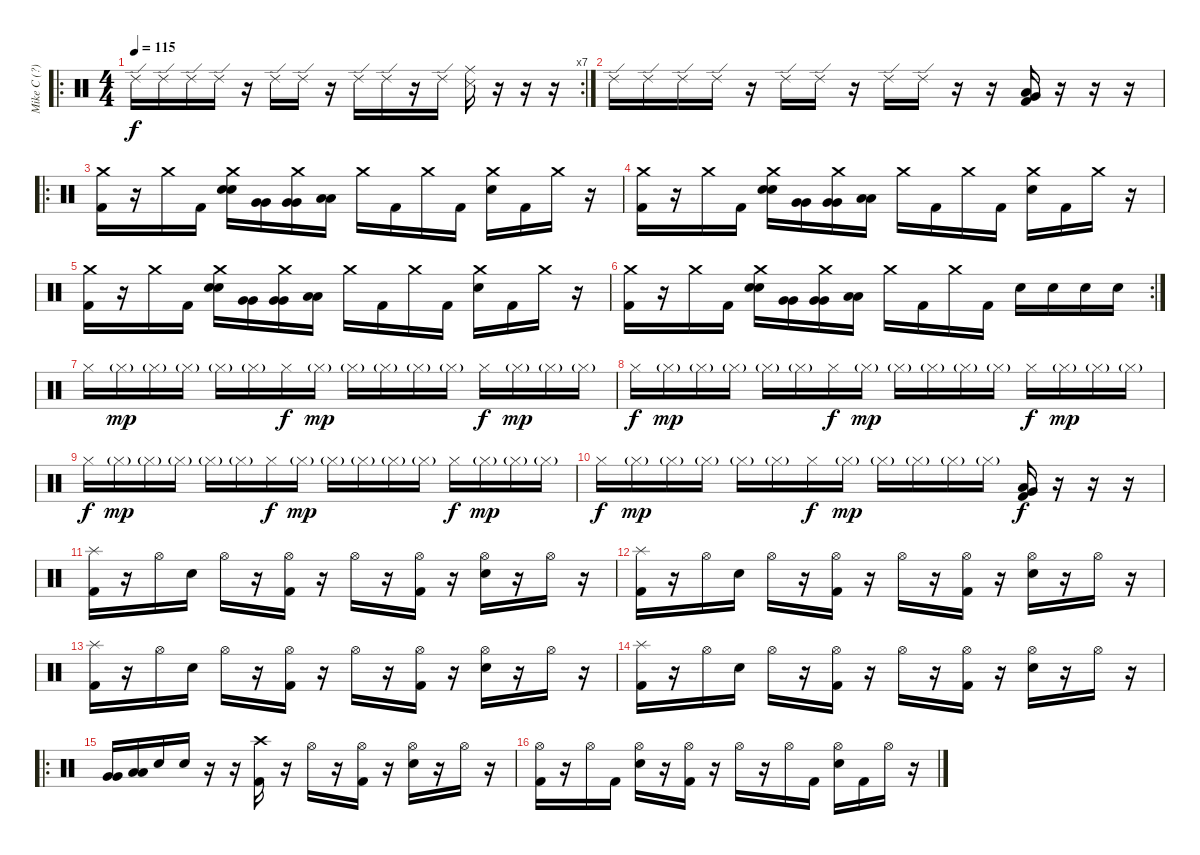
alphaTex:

\track ("Mike C (?)" "Mike C (?)") {instrument percussion}
\staff {score}
\articulation defaults
\ro
\rc 7
\ts (4 4)
\tempo 115
\clef neutral
\ks c "Ride (edge) 2".16{dy f} "Ride (edge) 2".16 "Ride (edge) 2".16 "Ride (edge) 2".16
r.16 "Ride (edge) 2".16 "Ride (edge) 2".16 r.16 "Ride (edge) 2".16 "Ride (edge) 2".16 r.16 "Ride (edge) 2".16 ("Ride (middle)" "Snare (side stick) 3").16 r.16 r.16 r.16 |
"Ride (edge) 2".16 "Ride (edge) 2".16 "Ride (edge) 2".16 "Ride (edge) 2".16 r.16 "Ride (edge) 2".16 "Ride (edge) 2".16 r.16 "Ride (edge) 2".16 "Ride (edge) 2".16 r.16 r.16 ("Very Low Tom (hit)" "Low Floor Tom (hit)" "Kick (hit) 2").16 r.16 r.16 r.16 |
\ro
("Crash medium (hit)" "Kick (hit) 2").16 r.16 "Crash medium (hit)".16 "Kick (hit) 2".16 ("Crash medium (hit)" "Snare (hit) 2" "Snare (hit) 2").16 ("Very Low Tom (hit)" "Very Low Tom (hit)").16 ("Crash medium (hit)" "Very Low Tom (hit)" "Very Low Tom (hit)").16 ("Low Floor Tom (hit)" "Low Floor Tom (hit)").16 "Crash medium (hit)".16 "Kick (hit) 2".16 "Crash medium (hit)".16 "Kick (hit) 2".16 ("Crash medium (hit)" "Snare (hit) 2").16 "Kick (hit) 2".16 "Crash medium (hit)".16 r.16 |
("Crash medium (hit)" "Kick (hit) 2").16 r.16 "Crash medium (hit)".16 "Kick (hit) 2".16 ("Crash medium (hit)" "Snare (hit) 2" "Snare (hit) 2").16 ("Very Low Tom (hit)" "Very Low Tom (hit)").16 ("Crash medium (hit)" "Very Low Tom (hit)" "Very Low Tom (hit)").16 ("Low Floor Tom (hit)" "Low Floor Tom (hit)").16 "Crash medium (hit)".16 "Kick (hit) 2".16 "Crash medium (hit)".16 "Kick (hit) 2".16 ("Crash medium (hit)" "Snare (hit) 2").16 "Kick (hit) 2".16 "Crash medium (hit)".16 r.16 |
("Crash medium (hit)" "Kick (hit) 2").16 r.16 "Crash medium (hit)".16 "Kick (hit) 2".16 ("Crash medium (hit)" "Snare (hit) 2" "Snare (hit) 2").16 ("Very Low Tom (hit)" "Very Low Tom (hit)").16 ("Crash medium (hit)" "Very Low Tom (hit)" "Very Low Tom (hit)").16 ("Low Floor Tom (hit)" "Low Floor Tom (hit)").16 "Crash medium (hit)".16 "Kick (hit) 2".16 "Crash medium (hit)".16 "Kick (hit) 2".16 ("Crash medium (hit)" "Snare (hit) 2").16 "Kick (hit) 2".16 "Crash medium (hit)".16 r.16 |
\rc 2
("Crash medium (hit)" "Kick (hit) 2").16 r.16 "Crash medium (hit)".16 "Kick (hit) 2".16 ("Crash medium (hit)" "Snare (hit) 2" "Snare (hit) 2").16 ("Very Low Tom (hit)" "Very Low Tom (hit)").16 ("Crash medium (hit)" "Very Low Tom (hit)" "Very Low Tom (hit)").16 ("Low Floor Tom (hit)" "Low Floor Tom (hit)").16 "Crash medium (hit)".16 "Kick (hit) 2".16 "Crash medium (hit)".16 "Kick (hit) 2".16 "Snare (hit) 2".16 "Snare (hit) 2".16 "Snare (hit) 2".16 "Snare (hit) 2".16 |
"Hi-Hat (closed)".16 "Hi-Hat (closed)"{g}.16{dy mp} "Hi-Hat (closed)"{g}.16 "Hi-Hat (closed)"{g}.16 "Hi-Hat (closed)"{g}.16 "Hi-Hat (closed)"{g}.16 "Hi-Hat (closed)".16{dy f} "Hi-Hat (closed)"{g}.16{dy mp} "Hi-Hat (closed)"{g}.16 "Hi-Hat (closed)"{g}.16 "Hi-Hat (closed)"{g}.16 "Hi-Hat (closed)"{g}.16 "Hi-Hat (closed)".16{dy f} "Hi-Hat (closed)"{g}.16{dy mp} "Hi-Hat (closed)"{g}.16 "Hi-Hat (closed)"{g}.16 |
"Hi-Hat (closed)".16{dy f} "Hi-Hat (closed)"{g}.16{dy mp} "Hi-Hat (closed)"{g}.16 "Hi-Hat (closed)"{g}.16 "Hi-Hat (closed)"{g}.16 "Hi-Hat (closed)"{g}.16 "Hi-Hat (closed)".16{dy f} "Hi-Hat (closed)"{g}.16{dy mp} "Hi-Hat (closed)"{g}.16 "Hi-Hat (closed)"{g}.16 "Hi-Hat (closed)"{g}.16 "Hi-Hat (closed)"{g}.16 "Hi-Hat (closed)".16{dy f} "Hi-Hat (closed)"{g}.16{dy mp} "Hi-Hat (closed)"{g}.16 "Hi-Hat (closed)"{g}.16 |
"Hi-Hat (closed)".16{dy f} "Hi-Hat (closed)"{g}.16{dy mp} "Hi-Hat (closed)"{g}.16 "Hi-Hat (closed)"{g}.16 "Hi-Hat (closed)"{g}.16 "Hi-Hat (closed)"{g}.16 "Hi-Hat (closed)".16{dy f} "Hi-Hat (closed)"{g}.16{dy mp} "Hi-Hat (closed)"{g}.16 "Hi-Hat (closed)"{g}.16 "Hi-Hat (closed)"{g}.16 "Hi-Hat (closed)"{g}.16 "Hi-Hat (closed)".16{dy f} "Hi-Hat (closed)"{g}.16{dy mp} "Hi-Hat (closed)"{g}.16 "Hi-Hat (closed)"{g}.16 |
"Hi-Hat (closed)".16{dy f} "Hi-Hat (closed)"{g}.16{dy mp} "Hi-Hat (closed)"{g}.16 "Hi-Hat (closed)"{g}.16 "Hi-Hat (closed)"{g}.16 "Hi-Hat (closed)"{g}.16 "Hi-Hat (closed)".16{dy f} "Hi-Hat (closed)"{g}.16{dy mp} "Hi-Hat (closed)"{g}.16 "Hi-Hat (closed)"{g}.16 "Hi-Hat (closed)"{g}.16 "Hi-Hat (closed)"{g}.16 ("Low Floor Tom (hit)" "Very Low Tom (hit)" "Kick (hit) 2").16{dy f} r.16 r.16 r.16 |
("Splash (hit)" "Kick (hit) 2").16 r.16 "Hi-Hat (open)".16 "Snare (hit) 2".16 "Hi-Hat (open)".16 r.16 ("Hi-Hat (open)" "Kick (hit) 2").16 r.16 "Hi-Hat (open)".16 r.16 ("Hi-Hat (open)" "Kick (hit) 2").16 r.16 ("Hi-Hat (open)" "Snare (hit) 2").16 r.16 "Hi-Hat (open)".16 r.16 |
("Splash (hit)" "Kick (hit) 2").16 r.16 "Hi-Hat (open)".16 "Snare (hit) 2".16 "Hi-Hat (open)".16 r.16 ("Hi-Hat (open)" "Kick (hit) 2").16 r.16 "Hi-Hat (open)".16 r.16 ("Hi-Hat (open)" "Kick (hit) 2").16 r.16 ("Hi-Hat (open)" "Snare (hit) 2").16 r.16 "Hi-Hat (open)".16 r.16 |
("Splash (hit)" "Kick (hit) 2").16 r.16 "Hi-Hat (open)".16 "Snare (hit) 2".16 "Hi-Hat (open)".16 r.16 ("Hi-Hat (open)" "Kick (hit) 2").16 r.16 "Hi-Hat (open)".16 r.16 ("Hi-Hat (open)" "Kick (hit) 2").16 r.16 ("Hi-Hat (open)" "Snare (hit) 2").16 r.16 "Hi-Hat (open)".16 r.16 |
("Splash (hit)" "Kick (hit) 2").16 r.16 "Hi-Hat (open)".16 "Snare (hit) 2".16 "Hi-Hat (open)".16 r.16 ("Hi-Hat (open)" "Kick (hit) 2").16 r.16 "Hi-Hat (open)".16 r.16 ("Hi-Hat (open)" "Kick (hit) 2").16 r.16 ("Hi-Hat (open)" "Snare (hit) 2").16 r.16 "Hi-Hat (open)".16 r.16 |
\ro
("Very Low Tom (hit)" "Very Low Tom (hit)").16 ("Low Floor Tom (hit)" "Low Floor Tom (hit)").16 "Snare (hit) 2".16 "Snare (hit) 2".16 r.16 r.16 ("Crash high (hit)" "Kick (hit) 2").16 r.16 "Hi-Hat (open)".16 r.16 ("Hi-Hat (open)" "Kick (hit) 2").16 r.16 ("Hi-Hat (open)" "Snare (hit) 2").16 r.16 "Hi-Hat (open)".16 r.16 |
("Hi-Hat (open)" "Kick (hit) 2").16 r.16 "Hi-Hat (open)".16 "Kick (hit) 2".16 ("Hi-Hat (open)" "Snare (hit) 2").16 r.16 ("Hi-Hat (open)" "Kick (hit) 2").16 r.16 "Hi-Hat (open)".16 r.16 "Hi-Hat (open)".16 "Kick (hit) 2".16 ("Hi-Hat (open)" "Snare (hit) 2").16 "Kick (hit) 2".16 "Hi-Hat (open)".16 r.16
